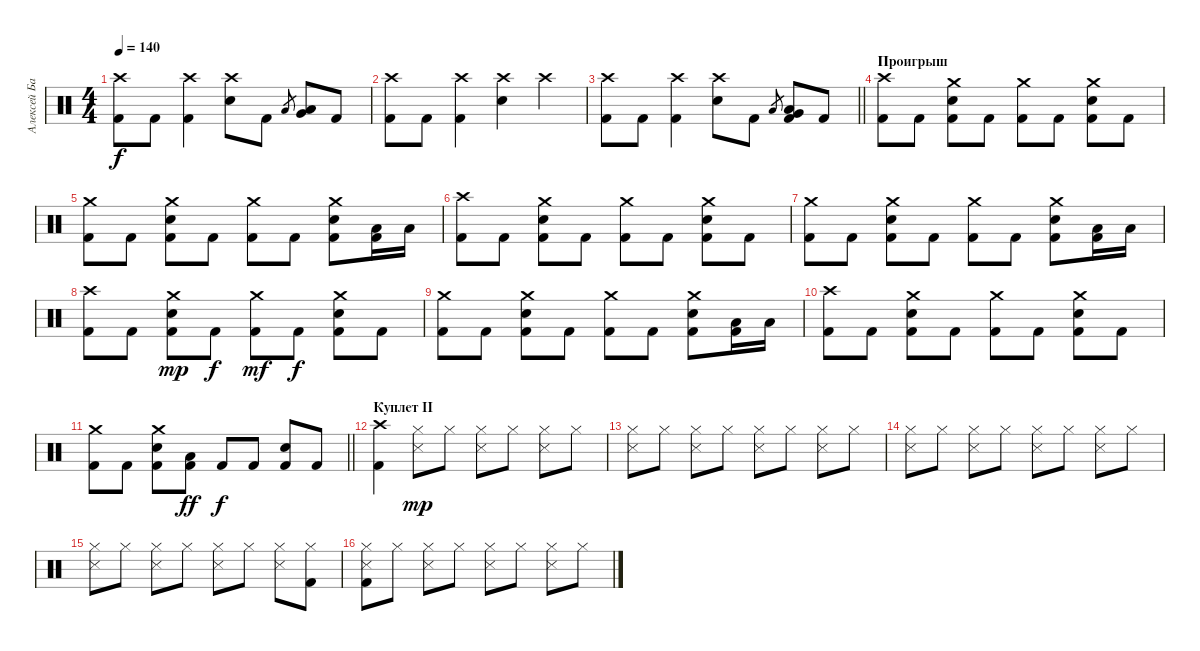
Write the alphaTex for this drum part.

\track ("Алексей Барзилович" "Алексей Ба") {instrument percussion}
\staff {score}
\articulation defaults
\ts (4 4)
\tempo 140
\clef neutral
\ks c
("Crash high (hit)" "Kick (hit) 2").8{dy f} "Kick (hit) 2".8 ("Crash high (hit)" "Kick (hit) 2").4 ("Crash high (hit)" "Electric Snare (hit)").8 "Kick (hit) 2".8 "Low Tom (hit)".8{gr} ("Low Tom (hit)" "Very Low Tom (hit)").8 "Kick (hit) 2".8 |
("Crash high (hit)" "Kick (hit) 2").8 "Kick (hit) 2".8 ("Crash high (hit)" "Kick (hit) 2").4 ("Crash high (hit)" "Electric Snare (hit)").4 "Crash high (hit)".4 |
\barLineRight lightlight
("Crash high (hit)" "Kick (hit) 2").8 "Kick (hit) 2".8 ("Crash high (hit)" "Kick (hit) 2").4 ("Crash high (hit)" "Electric Snare (hit)").8 "Kick (hit) 2".8 "Low Tom (hit)".8{gr} ("Low Tom (hit)" "Very Low Tom (hit)" "Kick (hit) 2").8 "Kick (hit) 2".8 |
\section ("" "Проигрыш")
("Crash high (hit)" "Kick (hit) 2").8 "Kick (hit) 2".8 ("Crash medium (hit)" "Electric Snare (hit)" "Kick (hit) 2").8 "Kick (hit) 2".8 ("Crash medium (hit)" "Kick (hit) 2").8 "Kick (hit) 2".8 ("Crash medium (hit)" "Electric Snare (hit)" "Kick (hit) 2").8 "Kick (hit) 2".8 |
("Crash medium (hit)" "Kick (hit) 2").8 "Kick (hit) 2".8 ("Crash medium (hit)" "Electric Snare (hit)" "Kick (hit) 2").8 "Kick (hit) 2".8 ("Crash medium (hit)" "Kick (hit) 2").8 "Kick (hit) 2".8 ("Crash medium (hit)" "Electric Snare (hit)" "Kick (hit) 2").8 ("Low Tom (hit)" "Kick (hit) 2").16 "Low Tom (hit)".16 |
("Crash high (hit)" "Kick (hit) 2").8 "Kick (hit) 2".8 ("Crash medium (hit)" "Electric Snare (hit)" "Kick (hit) 2").8 "Kick (hit) 2".8 ("Crash medium (hit)" "Kick (hit) 2").8 "Kick (hit) 2".8 ("Crash medium (hit)" "Electric Snare (hit)" "Kick (hit) 2").8 "Kick (hit) 2".8 |
("Crash medium (hit)" "Kick (hit) 2").8 "Kick (hit) 2".8 ("Crash medium (hit)" "Electric Snare (hit)" "Kick (hit) 2").8 "Kick (hit) 2".8 ("Crash medium (hit)" "Kick (hit) 2").8 "Kick (hit) 2".8 ("Crash medium (hit)" "Electric Snare (hit)" "Kick (hit) 2").8 ("Low Tom (hit)" "Kick (hit) 2").16 "Low Tom (hit)".16 |
("Crash high (hit)" "Kick (hit) 2").8 "Kick (hit) 2".8 ("Crash medium (hit)" "Electric Snare (hit)" "Kick (hit) 2").8{dy mp} "Kick (hit) 2".8{dy f} ("Crash medium (hit)" "Kick (hit) 2").8{dy mf} "Kick (hit) 2".8{dy f} ("Crash medium (hit)" "Electric Snare (hit)" "Kick (hit) 2").8 "Kick (hit) 2".8 |
("Crash medium (hit)" "Kick (hit) 2").8 "Kick (hit) 2".8 ("Crash medium (hit)" "Electric Snare (hit)" "Kick (hit) 2").8 "Kick (hit) 2".8 ("Crash medium (hit)" "Kick (hit) 2").8 "Kick (hit) 2".8 ("Crash medium (hit)" "Electric Snare (hit)" "Kick (hit) 2").8 ("Low Tom (hit)" "Kick (hit) 2").16 "Low Tom (hit)".16 |
("Crash high (hit)" "Kick (hit) 2").8 "Kick (hit) 2".8 ("Crash medium (hit)" "Electric Snare (hit)" "Kick (hit) 2").8 "Kick (hit) 2".8 ("Crash medium (hit)" "Kick (hit) 2").8 "Kick (hit) 2".8 ("Crash medium (hit)" "Electric Snare (hit)" "Kick (hit) 2").8 "Kick (hit) 2".8 |
\barLineRight lightlight
("Crash medium (hit)" "Kick (hit) 2").8 "Kick (hit) 2".8 ("Crash medium (hit)" "Electric Snare (hit)" "Kick (hit) 2").8 ("Low Tom (hit)" "Kick (hit) 2").8{dy ff} "Kick (hit) 2".8{dy f} "Kick (hit) 2".8 ("Electric Snare (hit)" "Kick (hit) 2").8 "Kick (hit) 2".8 |
\section ("" "Куплет II")
("Crash high (hit)" "Kick (hit) 2").4 ("Hi-Hat (closed)" "Snare (side stick) 3").8{dy mp} "Hi-Hat (closed)".8 ("Hi-Hat (closed)" "Snare (side stick) 3").8 "Hi-Hat (closed)".8 ("Hi-Hat (closed)" "Snare (side stick) 3").8 "Hi-Hat (closed)".8 |
("Hi-Hat (closed)" "Snare (side stick) 3").8 "Hi-Hat (closed)".8 ("Hi-Hat (closed)" "Snare (side stick) 3").8 "Hi-Hat (closed)".8 ("Hi-Hat (closed)" "Snare (side stick) 3").8 "Hi-Hat (closed)".8 ("Hi-Hat (closed)" "Snare (side stick) 3").8 "Hi-Hat (closed)".8 |
("Hi-Hat (closed)" "Snare (side stick) 3").8 "Hi-Hat (closed)".8 ("Hi-Hat (closed)" "Snare (side stick) 3").8 "Hi-Hat (closed)".8 ("Hi-Hat (closed)" "Snare (side stick) 3").8 "Hi-Hat (closed)".8 ("Hi-Hat (closed)" "Snare (side stick) 3").8 "Hi-Hat (closed)".8 |
("Hi-Hat (closed)" "Snare (side stick) 3").8 "Hi-Hat (closed)".8 ("Hi-Hat (closed)" "Snare (side stick) 3").8 "Hi-Hat (closed)".8 ("Hi-Hat (closed)" "Snare (side stick) 3").8 "Hi-Hat (closed)".8 ("Hi-Hat (closed)" "Snare (side stick) 3").8 ("Hi-Hat (closed)" "Kick (hit) 2").8 |
("Hi-Hat (closed)" "Snare (side stick) 3" "Kick (hit) 2").8 "Hi-Hat (closed)".8 ("Hi-Hat (closed)" "Snare (side stick) 3").8 "Hi-Hat (closed)".8 ("Hi-Hat (closed)" "Snare (side stick) 3").8 "Hi-Hat (closed)".8 ("Hi-Hat (closed)" "Snare (side stick) 3").8 "Hi-Hat (closed)".8
